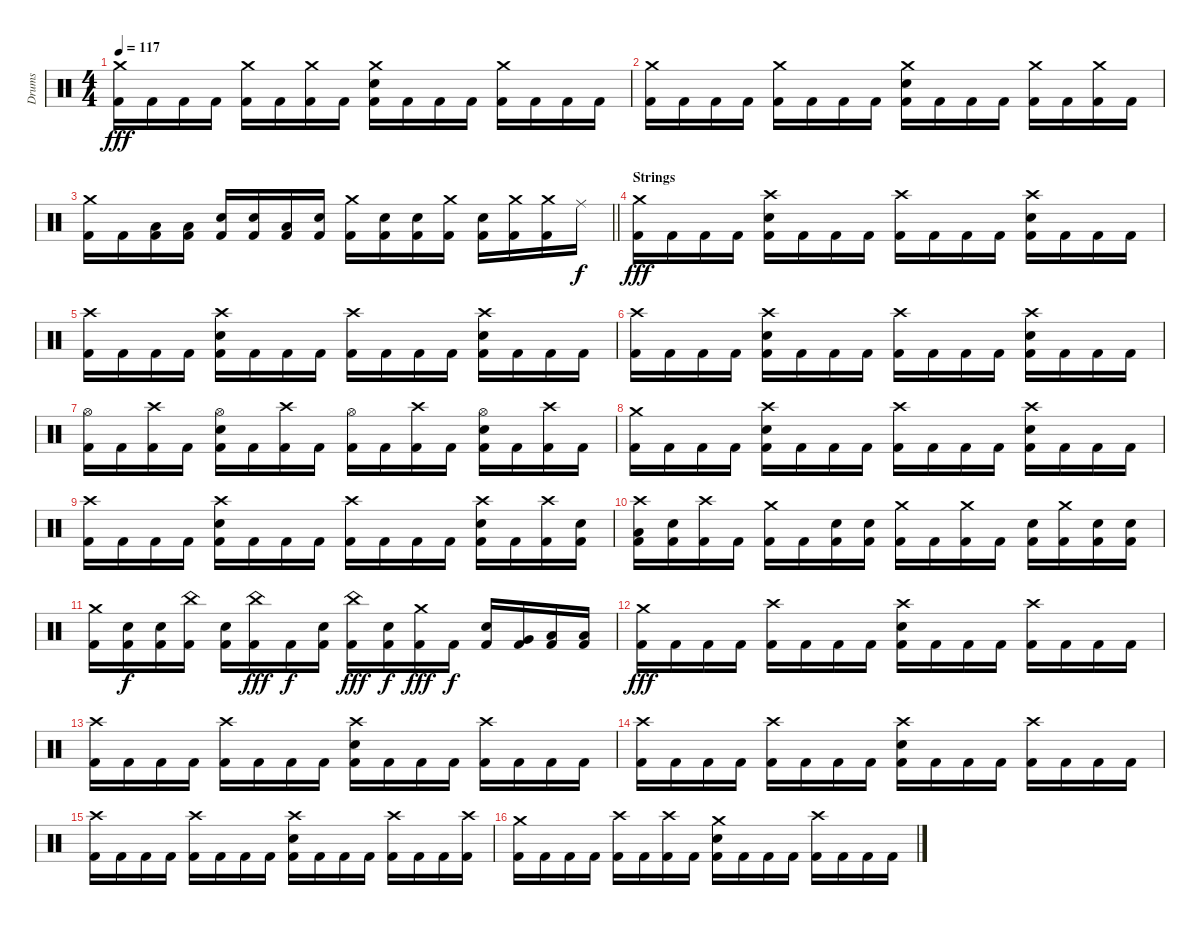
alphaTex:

\track ("Drums" "Drums") {instrument percussion}
\staff {score}
\articulation defaults
\ts (4 4)
\tempo 117
\clef neutral
\ks c
("Crash medium (hit)" "Kick (hit) 2").16{dy fff} "Kick (hit) 2".16 "Kick (hit) 2".16 "Kick (hit) 2".16 ("Crash medium (hit)" "Kick (hit) 2").16 "Kick (hit) 2".16 ("Crash medium (hit)" "Kick (hit) 2").16 "Kick (hit) 2".16 ("Crash medium (hit)" "Electric Snare (hit)" "Kick (hit) 2").16 "Kick (hit) 2".16 "Kick (hit) 2".16 "Kick (hit) 2".16 ("Crash medium (hit)" "Kick (hit) 2").16 "Kick (hit) 2".16 "Kick (hit) 2".16 "Kick (hit) 2".16 |
("Crash medium (hit)" "Kick (hit) 2").16 "Kick (hit) 2".16 "Kick (hit) 2".16 "Kick (hit) 2".16 ("Crash medium (hit)" "Kick (hit) 2").16 "Kick (hit) 2".16 "Kick (hit) 2".16 "Kick (hit) 2".16 ("Crash medium (hit)" "Electric Snare (hit)" "Kick (hit) 2").16 "Kick (hit) 2".16 "Kick (hit) 2".16 "Kick (hit) 2".16 ("Crash medium (hit)" "Kick (hit) 2").16 "Kick (hit) 2".16 ("Crash medium (hit)" "Kick (hit) 2").16 "Kick (hit) 2".16 |
\barLineRight lightlight
("Crash medium (hit)" "Kick (hit) 2").16 "Kick (hit) 2".16 ("Low Tom (hit)" "Kick (hit) 2").16 ("Low Tom (hit)" "Kick (hit) 2").16 ("Electric Snare (hit)" "Kick (hit) 2").16 ("Electric Snare (hit)" "Kick (hit) 2").16 ("Low Tom (hit)" "Kick (hit) 2").16 ("Electric Snare (hit)" "Kick (hit) 2").16 ("Crash medium (hit)" "Kick (hit) 2").16 ("Electric Snare (hit)" "Kick (hit) 2").16 ("Electric Snare (hit)" "Kick (hit) 2").16 ("Crash medium (hit)" "Kick (hit) 2").16 ("Electric Snare (hit)" "Kick (hit) 2").16 ("Crash medium (hit)" "Kick (hit) 2").16 ("Crash medium (hit)" "Kick (hit) 2").16 "Ride (middle)".16{dy f} |
\section ("" "Strings")
("Crash medium (hit)" "Kick (hit) 2").16{dy fff} "Kick (hit) 2".16 "Kick (hit) 2".16 "Kick (hit) 2".16 ("Crash high (hit)" "Electric Snare (hit)" "Kick (hit) 2").16 "Kick (hit) 2".16 "Kick (hit) 2".16 "Kick (hit) 2".16 ("Crash high (hit)" "Kick (hit) 2").16 "Kick (hit) 2".16 "Kick (hit) 2".16 "Kick (hit) 2".16 ("Crash high (hit)" "Electric Snare (hit)" "Kick (hit) 2").16 "Kick (hit) 2".16 "Kick (hit) 2".16 "Kick (hit) 2".16 |
("Crash high (hit)" "Kick (hit) 2").16 "Kick (hit) 2".16 "Kick (hit) 2".16 "Kick (hit) 2".16 ("Crash high (hit)" "Electric Snare (hit)" "Kick (hit) 2").16 "Kick (hit) 2".16 "Kick (hit) 2".16 "Kick (hit) 2".16 ("Crash high (hit)" "Kick (hit) 2").16 "Kick (hit) 2".16 "Kick (hit) 2".16 "Kick (hit) 2".16 ("Crash high (hit)" "Electric Snare (hit)" "Kick (hit) 2").16 "Kick (hit) 2".16 "Kick (hit) 2".16 "Kick (hit) 2".16 |
("Crash high (hit)" "Kick (hit) 2").16 "Kick (hit) 2".16 "Kick (hit) 2".16 "Kick (hit) 2".16 ("Crash high (hit)" "Electric Snare (hit)" "Kick (hit) 2").16 "Kick (hit) 2".16 "Kick (hit) 2".16 "Kick (hit) 2".16 ("Crash high (hit)" "Kick (hit) 2").16 "Kick (hit) 2".16 "Kick (hit) 2".16 "Kick (hit) 2".16 ("Crash high (hit)" "Electric Snare (hit)" "Kick (hit) 2").16 "Kick (hit) 2".16 "Kick (hit) 2".16 "Kick (hit) 2".16 |
("Hi-Hat (open)" "Kick (hit) 2").16 "Kick (hit) 2".16 ("Crash high (hit)" "Kick (hit) 2").16 "Kick (hit) 2".16 ("Hi-Hat (open)" "Electric Snare (hit)" "Kick (hit) 2").16 "Kick (hit) 2".16 ("Crash high (hit)" "Kick (hit) 2").16 "Kick (hit) 2".16 ("Hi-Hat (open)" "Kick (hit) 2").16 "Kick (hit) 2".16 ("Crash high (hit)" "Kick (hit) 2").16 "Kick (hit) 2".16 ("Hi-Hat (open)" "Electric Snare (hit)" "Kick (hit) 2").16 "Kick (hit) 2".16 ("Crash high (hit)" "Kick (hit) 2").16 "Kick (hit) 2".16 |
("Crash medium (hit)" "Kick (hit) 2").16 "Kick (hit) 2".16 "Kick (hit) 2".16 "Kick (hit) 2".16 ("Crash high (hit)" "Electric Snare (hit)" "Kick (hit) 2").16 "Kick (hit) 2".16 "Kick (hit) 2".16 "Kick (hit) 2".16 ("Crash high (hit)" "Kick (hit) 2").16 "Kick (hit) 2".16 "Kick (hit) 2".16 "Kick (hit) 2".16 ("Crash high (hit)" "Electric Snare (hit)" "Kick (hit) 2").16 "Kick (hit) 2".16 "Kick (hit) 2".16 "Kick (hit) 2".16 |
("Crash high (hit)" "Kick (hit) 2").16 "Kick (hit) 2".16 "Kick (hit) 2".16 "Kick (hit) 2".16 ("Crash high (hit)" "Electric Snare (hit)" "Kick (hit) 2").16 "Kick (hit) 2".16 "Kick (hit) 2".16 "Kick (hit) 2".16 ("Crash high (hit)" "Kick (hit) 2").16 "Kick (hit) 2".16 "Kick (hit) 2".16 "Kick (hit) 2".16 ("Crash high (hit)" "Electric Snare (hit)" "Kick (hit) 2").16 "Kick (hit) 2".16 ("Crash high (hit)" "Kick (hit) 2").16 ("Electric Snare (hit)" "Kick (hit) 2").16 |
("Crash high (hit)" "Low Tom (hit)" "Kick (hit) 2").16 ("Electric Snare (hit)" "Kick (hit) 2").16 ("Crash high (hit)" "Kick (hit) 2").16 "Kick (hit) 2".16 ("Crash medium (hit)" "Kick (hit) 2").16 "Kick (hit) 2".16 ("Electric Snare (hit)" "Kick (hit) 2").16 ("Electric Snare (hit)" "Kick (hit) 2").16 ("Crash medium (hit)" "Kick (hit) 2").16 "Kick (hit) 2".16 ("Crash medium (hit)" "Kick (hit) 2").16 "Kick (hit) 2".16 ("Electric Snare (hit)" "Kick (hit) 2").16 ("Crash medium (hit)" "Kick (hit) 2").16 ("Electric Snare (hit)" "Kick (hit) 2").16 ("Electric Snare (hit)" "Kick (hit) 2").16 |
("Crash medium (hit)" "Kick (hit) 2").16 ("Electric Snare (hit)" "Kick (hit) 2").16{dy f} ("Electric Snare (hit)" "Kick (hit) 2").16 ("China (hit)" "Kick (hit) 2").16 ("Electric Snare (hit)" "Kick (hit) 2").16 ("China (hit)" "Kick (hit) 2").16{dy fff} "Kick (hit) 2".16{dy f} ("Electric Snare (hit)" "Kick (hit) 2").16 ("China (hit)" "Kick (hit) 2").16{dy fff} ("Electric Snare (hit)" "Kick (hit) 2").16{dy f} ("Crash medium (hit)" "Kick (hit) 2").16{dy fff} "Kick (hit) 2".16{dy f} ("Electric Snare (hit)" "Kick (hit) 2").16 ("Very Low Tom (hit)" "Kick (hit) 2").16 ("Low Floor Tom (hit)" "Kick (hit) 2").16 ("Low Floor Tom (hit)" "Kick (hit) 2").16 |
("Crash medium (hit)" "Kick (hit) 2").16{dy fff} "Kick (hit) 2".16 "Kick (hit) 2".16 "Kick (hit) 2".16 ("Crash high (hit)" "Kick (hit) 2").16 "Kick (hit) 2".16 "Kick (hit) 2".16 "Kick (hit) 2".16 ("Crash high (hit)" "Electric Snare (hit)" "Kick (hit) 2").16 "Kick (hit) 2".16 "Kick (hit) 2".16 "Kick (hit) 2".16 ("Crash high (hit)" "Kick (hit) 2").16 "Kick (hit) 2".16 "Kick (hit) 2".16 "Kick (hit) 2".16 |
("Crash high (hit)" "Kick (hit) 2").16 "Kick (hit) 2".16 "Kick (hit) 2".16 "Kick (hit) 2".16 ("Crash high (hit)" "Kick (hit) 2").16 "Kick (hit) 2".16 "Kick (hit) 2".16 "Kick (hit) 2".16 ("Crash high (hit)" "Electric Snare (hit)" "Kick (hit) 2").16 "Kick (hit) 2".16 "Kick (hit) 2".16 "Kick (hit) 2".16 ("Crash high (hit)" "Kick (hit) 2").16 "Kick (hit) 2".16 "Kick (hit) 2".16 "Kick (hit) 2".16 |
("Crash high (hit)" "Kick (hit) 2").16 "Kick (hit) 2".16 "Kick (hit) 2".16 "Kick (hit) 2".16 ("Crash high (hit)" "Kick (hit) 2").16 "Kick (hit) 2".16 "Kick (hit) 2".16 "Kick (hit) 2".16 ("Crash high (hit)" "Electric Snare (hit)" "Kick (hit) 2").16 "Kick (hit) 2".16 "Kick (hit) 2".16 "Kick (hit) 2".16 ("Crash high (hit)" "Kick (hit) 2").16 "Kick (hit) 2".16 "Kick (hit) 2".16 "Kick (hit) 2".16 |
("Crash high (hit)" "Kick (hit) 2").16 "Kick (hit) 2".16 "Kick (hit) 2".16 "Kick (hit) 2".16 ("Crash high (hit)" "Kick (hit) 2").16 "Kick (hit) 2".16 "Kick (hit) 2".16 "Kick (hit) 2".16 ("Crash high (hit)" "Electric Snare (hit)" "Kick (hit) 2").16 "Kick (hit) 2".16 "Kick (hit) 2".16 "Kick (hit) 2".16 ("Crash high (hit)" "Kick (hit) 2").16 "Kick (hit) 2".16 "Kick (hit) 2".16 ("Crash high (hit)" "Kick (hit) 2").16 |
("Crash medium (hit)" "Kick (hit) 2").16 "Kick (hit) 2".16 "Kick (hit) 2".16 "Kick (hit) 2".16 ("Crash high (hit)" "Kick (hit) 2").16 "Kick (hit) 2".16 ("Crash high (hit)" "Kick (hit) 2").16 "Kick (hit) 2".16 ("Crash medium (hit)" "Electric Snare (hit)" "Kick (hit) 2").16 "Kick (hit) 2".16 "Kick (hit) 2".16 "Kick (hit) 2".16 ("Crash high (hit)" "Kick (hit) 2").16 "Kick (hit) 2".16 "Kick (hit) 2".16 "Kick (hit) 2".16
